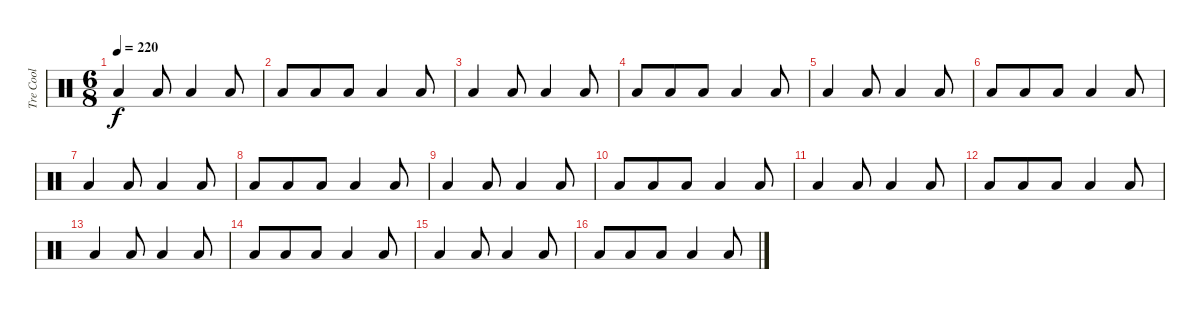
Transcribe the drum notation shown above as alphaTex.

\track ("Tre Cool" "Tre Cool") {instrument percussion}
\staff {score}
\articulation defaults
\ts (6 8)
\tempo 220
\clef neutral
\ks c "Low Floor Tom (hit)".4{dy f} "Low Floor Tom (hit)".8 "Low Tom (hit)".4 "Low Tom (hit)".8
|
"Low Floor Tom (hit)".8 "Low Floor Tom (hit)".8 "Low Floor Tom (hit)".8 "Low Tom (hit)".4 "Low Tom (hit)".8 |
"Low Floor Tom (hit)".4 "Low Floor Tom (hit)".8 "Low Tom (hit)".4 "Low Tom (hit)".8 |
"Low Floor Tom (hit)".8 "Low Floor Tom (hit)".8 "Low Floor Tom (hit)".8 "Low Tom (hit)".4 "Low Tom (hit)".8 |
"Low Floor Tom (hit)".4 "Low Floor Tom (hit)".8 "Low Tom (hit)".4 "Low Tom (hit)".8 |
"Low Floor Tom (hit)".8 "Low Floor Tom (hit)".8 "Low Floor Tom (hit)".8 "Low Tom (hit)".4 "Low Tom (hit)".8 |
"Low Floor Tom (hit)".4 "Low Floor Tom (hit)".8 "Low Tom (hit)".4 "Low Tom (hit)".8 |
"Low Floor Tom (hit)".8 "Low Floor Tom (hit)".8 "Low Floor Tom (hit)".8 "Low Tom (hit)".4 "Low Tom (hit)".8 |
"Low Floor Tom (hit)".4 "Low Floor Tom (hit)".8 "Low Tom (hit)".4 "Low Tom (hit)".8 |
"Low Floor Tom (hit)".8 "Low Floor Tom (hit)".8 "Low Floor Tom (hit)".8 "Low Tom (hit)".4 "Low Tom (hit)".8 |
"Low Floor Tom (hit)".4 "Low Floor Tom (hit)".8 "Low Tom (hit)".4 "Low Tom (hit)".8 |
"Low Floor Tom (hit)".8 "Low Floor Tom (hit)".8 "Low Floor Tom (hit)".8 "Low Tom (hit)".4 "Low Tom (hit)".8 |
"Low Floor Tom (hit)".4 "Low Floor Tom (hit)".8 "Low Tom (hit)".4 "Low Tom (hit)".8 |
"Low Floor Tom (hit)".8 "Low Floor Tom (hit)".8 "Low Floor Tom (hit)".8 "Low Tom (hit)".4 "Low Tom (hit)".8 |
"Low Floor Tom (hit)".4 "Low Floor Tom (hit)".8 "Low Tom (hit)".4 "Low Tom (hit)".8 |
"Low Floor Tom (hit)".8 "Low Floor Tom (hit)".8 "Low Floor Tom (hit)".8 "Low Tom (hit)".4 "Low Tom (hit)".8
